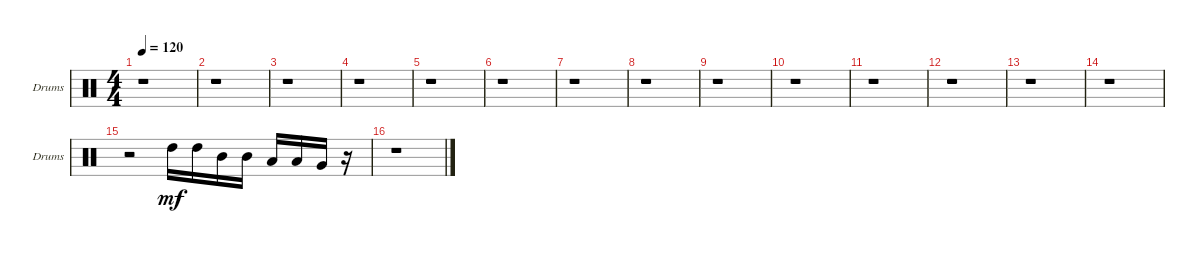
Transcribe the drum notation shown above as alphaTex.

\bracketExtendMode groupsimilarinstruments
\singleTrackTrackNamePolicy allsystems
\multiTrackTrackNamePolicy allsystems
\firstSystemTrackNameOrientation horizontal
\otherSystemsTrackNameOrientation horizontal
\track ("Toms" "Drums") {instrument percussion}
\staff {score}
\articulation defaults
\ts (4 4)
\tempo 120
\clef neutral
\scale
0.472222
\ks c
r.1{dy mf} |
\scale
0.263889 r.1 |
\scale
0.263889 r.1 |
\scale
0.333333 r.1 |
\scale
0.333333 r.1 |
\scale
0.333333 r.1 |
\scale
0.333333 r.1 |
\scale
0.333333 r.1 |
\scale
0.333333 r.1 |
\scale
0.333333 r.1 |
\scale
0.333333 r.1 |
\scale
0.333333 r.1 |
\scale
0.333333 r.1 |
\scale
0.333333 r.1 |
\scale
0.333333 r.2 "High Tom (hit)".16 "High Tom (hit)".16 "Mid Tom (hit)".16 "Mid Tom (hit)".16 "Low Tom (hit)".16 "Low Tom (hit)".16 "Very Low Tom (hit)".16 r.16 |
\scale
0.333333 r.1
